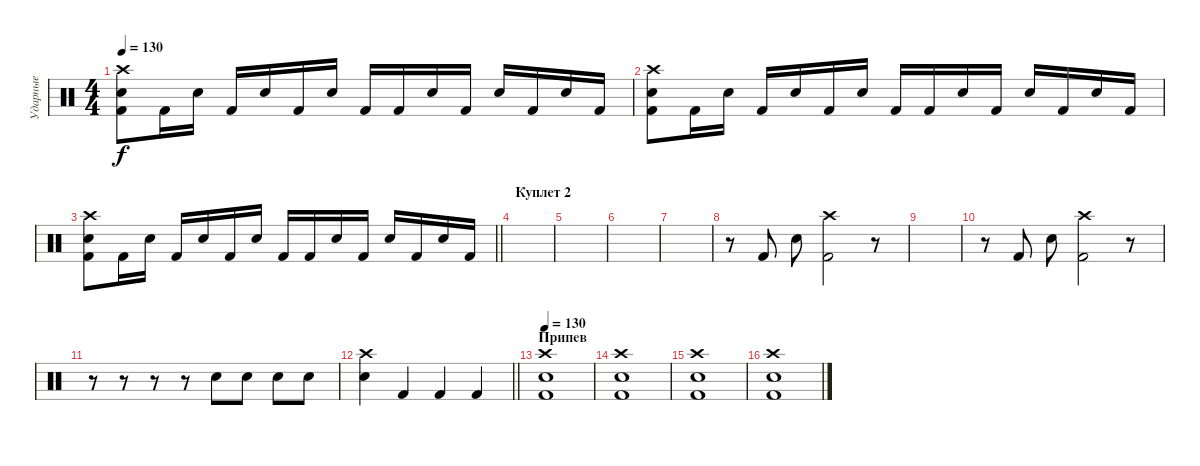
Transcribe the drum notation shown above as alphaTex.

\track ("Ударные" "Ударные") {instrument percussion}
\staff {score}
\articulation defaults
\ts (4 4)
\tempo 130
\clef neutral
\ks c
("Crash high (hit)" "Kick (hit) 2" "Snare (hit) 2").8{dy f} "Kick (hit) 2".16 "Snare (hit) 2".16 "Kick (hit) 2".16 "Snare (hit) 2".16 "Kick (hit) 2".16 "Snare (hit) 2".16 "Kick (hit) 2".16 "Kick (hit) 2".16 "Snare (hit) 2".16 "Kick (hit) 2".16 "Snare (hit) 2".16 "Kick (hit) 2".16 "Snare (hit) 2".16 "Kick (hit) 2".16 |
("Crash high (hit)" "Kick (hit) 2" "Snare (hit) 2").8 "Kick (hit) 2".16 "Snare (hit) 2".16 "Kick (hit) 2".16 "Snare (hit) 2".16 "Kick (hit) 2".16 "Snare (hit) 2".16 "Kick (hit) 2".16 "Kick (hit) 2".16 "Snare (hit) 2".16 "Kick (hit) 2".16 "Snare (hit) 2".16 "Kick (hit) 2".16 "Snare (hit) 2".16 "Kick (hit) 2".16 |
\barLineRight lightlight
("Crash high (hit)" "Kick (hit) 2" "Snare (hit) 2").8 "Kick (hit) 2".16 "Snare (hit) 2".16 "Kick (hit) 2".16 "Snare (hit) 2".16 "Kick (hit) 2".16 "Snare (hit) 2".16 "Kick (hit) 2".16 "Kick (hit) 2".16 "Snare (hit) 2".16 "Kick (hit) 2".16 "Snare (hit) 2".16 "Kick (hit) 2".16 "Snare (hit) 2".16 "Kick (hit) 2".16 |
\section ("" "Куплет 2")
|
|
|
|
r.8 "Kick (hit) 2".8 "Snare (hit) 2".8 ("Crash high (hit)" "Kick (hit) 2").2 r.8 |
|
r.8 "Kick (hit) 2".8 "Snare (hit) 2".8 ("Crash high (hit)" "Kick (hit) 2").2 r.8 |
r.8 r.8 r.8 r.8 "Snare (hit) 2".8 "Snare (hit) 2".8 "Snare (hit) 2".8 "Snare (hit) 2".8 |
\barLineRight lightlight
("Crash high (hit)" "Snare (hit) 2").4 "Kick (hit) 2".4 "Kick (hit) 2".4 "Kick (hit) 2".4 |
\section ("" "Припев")
\tempo 130
("Crash high (hit)" "Kick (hit) 2" "Snare (hit) 2").1 |
("Crash high (hit)" "Kick (hit) 2" "Snare (hit) 2").1 |
("Crash high (hit)" "Kick (hit) 2" "Snare (hit) 2").1 |
("Crash high (hit)" "Kick (hit) 2" "Snare (hit) 2").1
